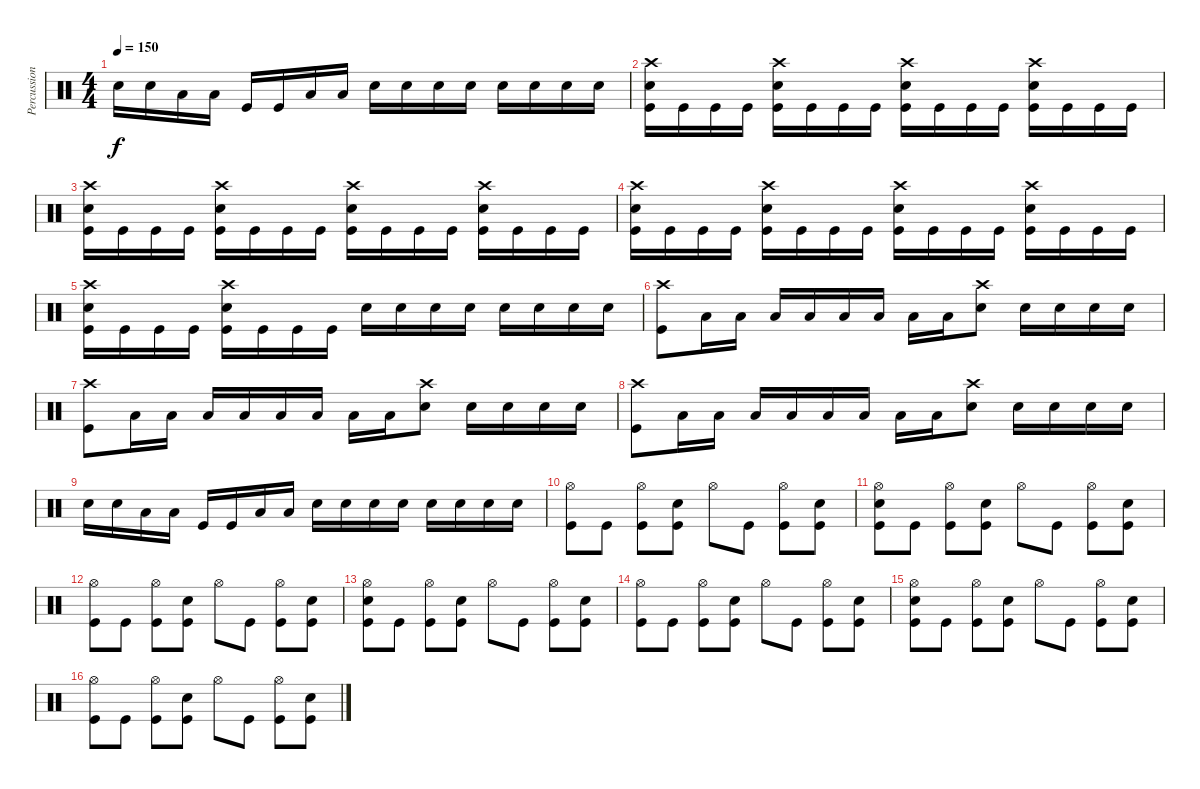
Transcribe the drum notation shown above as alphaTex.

\track ("Percussion" "Percussion") {instrument percussion}
\staff {score}
\articulation defaults
\ts (4 4)
\tempo 150
\clef neutral
\ks c "Electric Snare (hit)".16{dy f} "Electric Snare (hit)".16 "Low Floor Tom (hit)".16 "Low Floor Tom (hit)".16 "Kick (hit)".16 "Kick (hit)".16 "Low Tom (hit)".16 "Low Tom (hit)".16 "Electric Snare (hit)".16 "Electric Snare (hit)".16 "Electric Snare (hit)".16 "Electric Snare (hit)".16 "Electric Snare (hit)".16 "Electric Snare (hit)".16 "Electric Snare (hit)".16 "Electric Snare (hit)".16
|
("Crash high (hit)" "Electric Snare (hit)" "Kick (hit)").16 "Kick (hit)".16 "Kick (hit)".16 "Kick (hit)".16 ("Crash high (hit)" "Electric Snare (hit)" "Kick (hit)").16 "Kick (hit)".16 "Kick (hit)".16 "Kick (hit)".16 ("Crash high (hit)" "Electric Snare (hit)" "Kick (hit)").16 "Kick (hit)".16 "Kick (hit)".16 "Kick (hit)".16 ("Crash high (hit)" "Electric Snare (hit)" "Kick (hit)").16 "Kick (hit)".16 "Kick (hit)".16 "Kick (hit)".16 |
("Crash high (hit)" "Electric Snare (hit)" "Kick (hit)").16 "Kick (hit)".16 "Kick (hit)".16 "Kick (hit)".16 ("Crash high (hit)" "Electric Snare (hit)" "Kick (hit)").16 "Kick (hit)".16 "Kick (hit)".16 "Kick (hit)".16 ("Crash high (hit)" "Electric Snare (hit)" "Kick (hit)").16 "Kick (hit)".16 "Kick (hit)".16 "Kick (hit)".16 ("Crash high (hit)" "Electric Snare (hit)" "Kick (hit)").16 "Kick (hit)".16 "Kick (hit)".16 "Kick (hit)".16 |
("Crash high (hit)" "Electric Snare (hit)" "Kick (hit)").16 "Kick (hit)".16 "Kick (hit)".16 "Kick (hit)".16 ("Crash high (hit)" "Electric Snare (hit)" "Kick (hit)").16 "Kick (hit)".16 "Kick (hit)".16 "Kick (hit)".16 ("Crash high (hit)" "Electric Snare (hit)" "Kick (hit)").16 "Kick (hit)".16 "Kick (hit)".16 "Kick (hit)".16 ("Crash high (hit)" "Electric Snare (hit)" "Kick (hit)").16 "Kick (hit)".16 "Kick (hit)".16 "Kick (hit)".16 |
("Crash high (hit)" "Electric Snare (hit)" "Kick (hit)").16 "Kick (hit)".16 "Kick (hit)".16 "Kick (hit)".16 ("Crash high (hit)" "Electric Snare (hit)" "Kick (hit)").16 "Kick (hit)".16 "Kick (hit)".16 "Kick (hit)".16 "Electric Snare (hit)".16 "Electric Snare (hit)".16 "Electric Snare (hit)".16 "Electric Snare (hit)".16 "Electric Snare (hit)".16 "Electric Snare (hit)".16 "Electric Snare (hit)".16 "Electric Snare (hit)".16 |
("Kick (hit)" "Crash high (hit)").8 "Low Floor Tom (hit)".16 "Low Floor Tom (hit)".16 "Low Floor Tom (hit)".16 "Low Floor Tom (hit)".16 "Low Tom (hit)".16 "Low Tom (hit)".16 "Low Tom (hit)".16 "Low Tom (hit)".16 ("Crash high (hit)" "Electric Snare (hit)").8 "Electric Snare (hit)".16 "Electric Snare (hit)".16 "Electric Snare (hit)".16 "Electric Snare (hit)".16 |
("Kick (hit)" "Crash high (hit)").8 "Low Floor Tom (hit)".16 "Low Floor Tom (hit)".16 "Low Floor Tom (hit)".16 "Low Floor Tom (hit)".16 "Low Tom (hit)".16 "Low Tom (hit)".16 "Low Tom (hit)".16 "Low Tom (hit)".16 ("Crash high (hit)" "Electric Snare (hit)").8 "Electric Snare (hit)".16 "Electric Snare (hit)".16 "Electric Snare (hit)".16 "Electric Snare (hit)".16 |
("Kick (hit)" "Crash high (hit)").8 "Low Floor Tom (hit)".16 "Low Floor Tom (hit)".16 "Low Floor Tom (hit)".16 "Low Floor Tom (hit)".16 "Low Tom (hit)".16 "Low Tom (hit)".16 "Low Tom (hit)".16 "Low Tom (hit)".16 ("Crash high (hit)" "Electric Snare (hit)").8 "Electric Snare (hit)".16 "Electric Snare (hit)".16 "Electric Snare (hit)".16 "Electric Snare (hit)".16 |
"Electric Snare (hit)".16 "Electric Snare (hit)".16 "Low Floor Tom (hit)".16 "Low Floor Tom (hit)".16 "Kick (hit)".16 "Kick (hit)".16 "Low Tom (hit)".16 "Low Tom (hit)".16 "Electric Snare (hit)".16 "Electric Snare (hit)".16 "Electric Snare (hit)".16 "Electric Snare (hit)".16 "Electric Snare (hit)".16 "Electric Snare (hit)".16 "Electric Snare (hit)".16 "Electric Snare (hit)".16 |
("Kick (hit)" "Hi-Hat (open)").8 "Kick (hit)".8 ("Kick (hit)" "Hi-Hat (open)").8 ("Kick (hit)" "Electric Snare (hit)").8 "Hi-Hat (open)".8 "Kick (hit)".8 ("Kick (hit)" "Hi-Hat (open)").8 ("Kick (hit)" "Electric Snare (hit)").8 |
("Kick (hit)" "Electric Snare (hit)" "Hi-Hat (open)").8 "Kick (hit)".8 ("Kick (hit)" "Hi-Hat (open)").8 ("Kick (hit)" "Electric Snare (hit)").8 "Hi-Hat (open)".8 "Kick (hit)".8 ("Kick (hit)" "Hi-Hat (open)").8 ("Kick (hit)" "Electric Snare (hit)").8 |
("Kick (hit)" "Hi-Hat (open)").8 "Kick (hit)".8 ("Kick (hit)" "Hi-Hat (open)").8 ("Kick (hit)" "Electric Snare (hit)").8 "Hi-Hat (open)".8 "Kick (hit)".8 ("Kick (hit)" "Hi-Hat (open)").8 ("Kick (hit)" "Electric Snare (hit)").8 |
("Kick (hit)" "Electric Snare (hit)" "Hi-Hat (open)").8 "Kick (hit)".8 ("Kick (hit)" "Hi-Hat (open)").8 ("Kick (hit)" "Electric Snare (hit)").8 "Hi-Hat (open)".8 "Kick (hit)".8 ("Kick (hit)" "Hi-Hat (open)").8 ("Kick (hit)" "Electric Snare (hit)").8 |
("Kick (hit)" "Hi-Hat (open)").8 "Kick (hit)".8 ("Kick (hit)" "Hi-Hat (open)").8 ("Kick (hit)" "Electric Snare (hit)").8 "Hi-Hat (open)".8 "Kick (hit)".8 ("Kick (hit)" "Hi-Hat (open)").8 ("Kick (hit)" "Electric Snare (hit)").8 |
("Kick (hit)" "Electric Snare (hit)" "Hi-Hat (open)").8 "Kick (hit)".8 ("Kick (hit)" "Hi-Hat (open)").8 ("Kick (hit)" "Electric Snare (hit)").8 "Hi-Hat (open)".8 "Kick (hit)".8 ("Kick (hit)" "Hi-Hat (open)").8 ("Kick (hit)" "Electric Snare (hit)").8 |
("Kick (hit)" "Hi-Hat (open)").8 "Kick (hit)".8 ("Kick (hit)" "Hi-Hat (open)").8 ("Kick (hit)" "Electric Snare (hit)").8 "Hi-Hat (open)".8 "Kick (hit)".8 ("Kick (hit)" "Hi-Hat (open)").8 ("Kick (hit)" "Electric Snare (hit)").8
